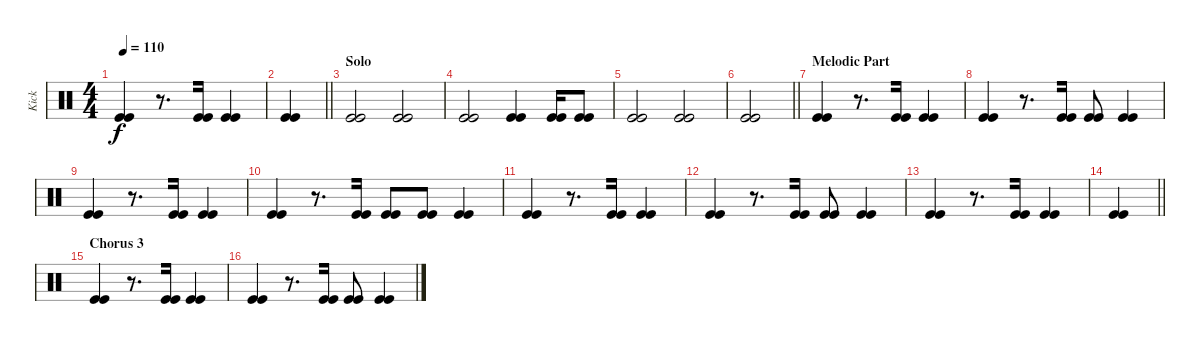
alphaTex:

\track ("Kick" "Kick") {instrument percussion}
\staff {score}
\articulation defaults
\ts (4 4)
\tempo 110
\clef neutral
\ks c
("Kick (hit)" "Kick (hit)").4{dy f beam merge} r.8{d} ("Kick (hit)" "Kick (hit)").16 ("Kick (hit)" "Kick (hit)").4 |
\barLineRight lightlight
("Kick (hit)" "Kick (hit)").4 |
\section ("" "Solo")
("Kick (hit)" "Kick (hit)").2 ("Kick (hit)" "Kick (hit)").2 |
("Kick (hit)" "Kick (hit)").2 ("Kick (hit)" "Kick (hit)").4{beam merge} ("Kick (hit)" "Kick (hit)").16 ("Kick (hit)" "Kick (hit)").8 |
("Kick (hit)" "Kick (hit)").2 ("Kick (hit)" "Kick (hit)").2 |
\barLineRight lightlight
("Kick (hit)" "Kick (hit)").2 |
\section ("" "Melodic Part")
("Kick (hit)" "Kick (hit)").4{beam merge} r.8{d} ("Kick (hit)" "Kick (hit)").16 ("Kick (hit)" "Kick (hit)").4 |
("Kick (hit)" "Kick (hit)").4{beam merge} r.8{d} ("Kick (hit)" "Kick (hit)").16 ("Kick (hit)" "Kick (hit)").8 ("Kick (hit)" "Kick (hit)").4 |
("Kick (hit)" "Kick (hit)").4{beam merge} r.8{d} ("Kick (hit)" "Kick (hit)").16 ("Kick (hit)" "Kick (hit)").4 |
("Kick (hit)" "Kick (hit)").4{beam merge} r.8{d} ("Kick (hit)" "Kick (hit)").16 ("Kick (hit)" "Kick (hit)").8 ("Kick (hit)" "Kick (hit)").8{beam merge} ("Kick (hit)" "Kick (hit)").4 |
("Kick (hit)" "Kick (hit)").4{beam merge} r.8{d} ("Kick (hit)" "Kick (hit)").16 ("Kick (hit)" "Kick (hit)").4 |
("Kick (hit)" "Kick (hit)").4{beam merge} r.8{d} ("Kick (hit)" "Kick (hit)").16 ("Kick (hit)" "Kick (hit)").8 ("Kick (hit)" "Kick (hit)").4 |
("Kick (hit)" "Kick (hit)").4{beam merge} r.8{d} ("Kick (hit)" "Kick (hit)").16 ("Kick (hit)" "Kick (hit)").4 |
\barLineRight lightlight
("Kick (hit)" "Kick (hit)").4 |
\section ("" "Chorus 3")
("Kick (hit)" "Kick (hit)").4{beam merge} r.8{d} ("Kick (hit)" "Kick (hit)").16 ("Kick (hit)" "Kick (hit)").4 |
("Kick (hit)" "Kick (hit)").4{beam merge} r.8{d} ("Kick (hit)" "Kick (hit)").16 ("Kick (hit)" "Kick (hit)").8 ("Kick (hit)" "Kick (hit)").4
